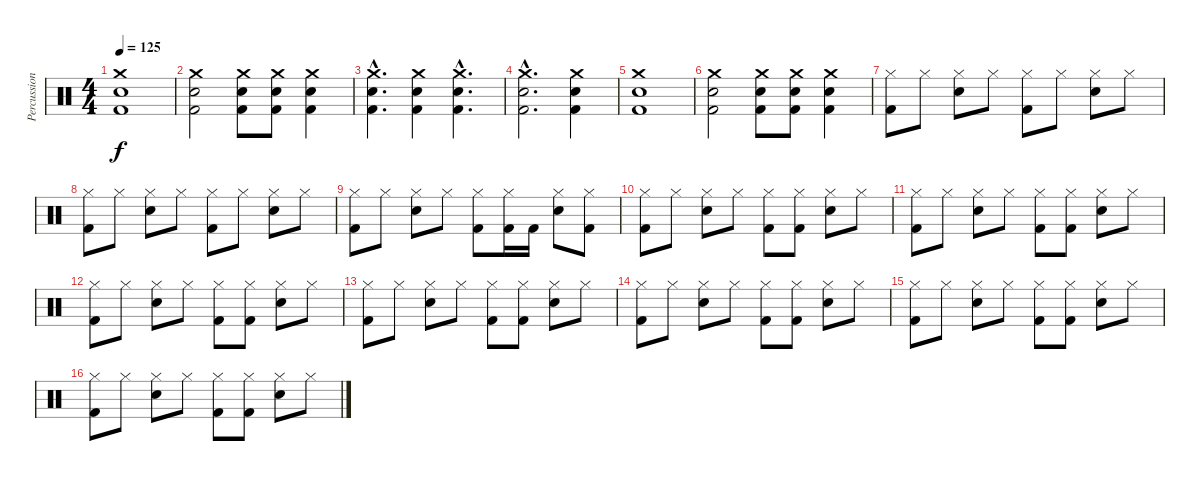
\track ("Percussion" "Percussion") {instrument percussion}
\staff {score}
\articulation defaults
\ts (4 4)
\tempo 125
\clef neutral
\ks c
("Crash medium (hit)" "Snare (hit) 2" "Kick (hit) 2").1{dy f} |
("Crash medium (hit)" "Snare (hit) 2" "Kick (hit) 2").2 ("Crash medium (hit)" "Snare (hit) 2" "Kick (hit) 2").8 ("Crash medium (hit)" "Snare (hit) 2" "Kick (hit) 2").8 ("Crash medium (hit)" "Snare (hit) 2" "Kick (hit) 2").4 |
("Crash medium (hit)"{hac} "Snare (hit) 2"{hac} "Kick (hit) 2"{hac}).4{d} ("Crash medium (hit)" "Snare (hit) 2" "Kick (hit) 2").4 ("Crash medium (hit)"{hac} "Snare (hit) 2"{hac} "Kick (hit) 2"{hac}).4{d} |
("Crash medium (hit)"{hac} "Snare (hit) 2"{hac} "Kick (hit) 2"{hac}).2{d} ("Crash medium (hit)" "Snare (hit) 2" "Kick (hit) 2").4 |
("Crash medium (hit)" "Snare (hit) 2" "Kick (hit) 2").1 |
("Crash medium (hit)" "Snare (hit) 2" "Kick (hit) 2").2 ("Crash medium (hit)" "Snare (hit) 2" "Kick (hit) 2").8 ("Crash medium (hit)" "Snare (hit) 2" "Kick (hit) 2").8 ("Crash medium (hit)" "Snare (hit) 2" "Kick (hit) 2").4 |
("Hi-Hat (closed)" "Kick (hit) 2").8 "Hi-Hat (closed)".8 ("Hi-Hat (closed)" "Snare (hit) 2").8 "Hi-Hat (closed)".8 ("Hi-Hat (closed)" "Kick (hit) 2").8 "Hi-Hat (closed)".8 ("Hi-Hat (closed)" "Snare (hit) 2").8 "Hi-Hat (closed)".8 |
("Hi-Hat (closed)" "Kick (hit) 2").8 "Hi-Hat (closed)".8 ("Hi-Hat (closed)" "Snare (hit) 2").8 "Hi-Hat (closed)".8 ("Hi-Hat (closed)" "Kick (hit) 2").8 "Hi-Hat (closed)".8 ("Hi-Hat (closed)" "Snare (hit) 2").8 "Hi-Hat (closed)".8 |
("Hi-Hat (closed)" "Kick (hit) 2").8 "Hi-Hat (closed)".8 ("Hi-Hat (closed)" "Snare (hit) 2").8 "Hi-Hat (closed)".8 ("Hi-Hat (closed)" "Kick (hit) 2").8 ("Hi-Hat (closed)" "Kick (hit) 2").16 "Kick (hit) 2".16 ("Hi-Hat (closed)" "Snare (hit) 2").8 ("Hi-Hat (closed)" "Kick (hit) 2").8 |
("Hi-Hat (closed)" "Kick (hit) 2").8 "Hi-Hat (closed)".8 ("Hi-Hat (closed)" "Snare (hit) 2").8 "Hi-Hat (closed)".8 ("Hi-Hat (closed)" "Kick (hit) 2").8 ("Hi-Hat (closed)" "Kick (hit) 2").8 ("Hi-Hat (closed)" "Snare (hit) 2").8 "Hi-Hat (closed)".8 |
("Hi-Hat (closed)" "Kick (hit) 2").8 "Hi-Hat (closed)".8 ("Hi-Hat (closed)" "Snare (hit) 2").8 "Hi-Hat (closed)".8 ("Hi-Hat (closed)" "Kick (hit) 2").8 ("Hi-Hat (closed)" "Kick (hit) 2").8 ("Hi-Hat (closed)" "Snare (hit) 2").8 "Hi-Hat (closed)".8 |
("Hi-Hat (closed)" "Kick (hit) 2").8 "Hi-Hat (closed)".8 ("Hi-Hat (closed)" "Snare (hit) 2").8 "Hi-Hat (closed)".8 ("Hi-Hat (closed)" "Kick (hit) 2").8 ("Hi-Hat (closed)" "Kick (hit) 2").8 ("Hi-Hat (closed)" "Snare (hit) 2").8 "Hi-Hat (closed)".8 |
("Hi-Hat (closed)" "Kick (hit) 2").8 "Hi-Hat (closed)".8 ("Hi-Hat (closed)" "Snare (hit) 2").8 "Hi-Hat (closed)".8 ("Hi-Hat (closed)" "Kick (hit) 2").8 ("Hi-Hat (closed)" "Kick (hit) 2").8 ("Hi-Hat (closed)" "Snare (hit) 2").8 "Hi-Hat (closed)".8 |
("Hi-Hat (closed)" "Kick (hit) 2").8 "Hi-Hat (closed)".8 ("Hi-Hat (closed)" "Snare (hit) 2").8 "Hi-Hat (closed)".8 ("Hi-Hat (closed)" "Kick (hit) 2").8 ("Hi-Hat (closed)" "Kick (hit) 2").8 ("Hi-Hat (closed)" "Snare (hit) 2").8 "Hi-Hat (closed)".8 |
("Hi-Hat (closed)" "Kick (hit) 2").8 "Hi-Hat (closed)".8 ("Hi-Hat (closed)" "Snare (hit) 2").8 "Hi-Hat (closed)".8 ("Hi-Hat (closed)" "Kick (hit) 2").8 ("Hi-Hat (closed)" "Kick (hit) 2").8 ("Hi-Hat (closed)" "Snare (hit) 2").8 "Hi-Hat (closed)".8 |
("Hi-Hat (closed)" "Kick (hit) 2").8 "Hi-Hat (closed)".8 ("Hi-Hat (closed)" "Snare (hit) 2").8 "Hi-Hat (closed)".8 ("Hi-Hat (closed)" "Kick (hit) 2").8 ("Hi-Hat (closed)" "Kick (hit) 2").8 ("Hi-Hat (closed)" "Snare (hit) 2").8 "Hi-Hat (closed)".8
